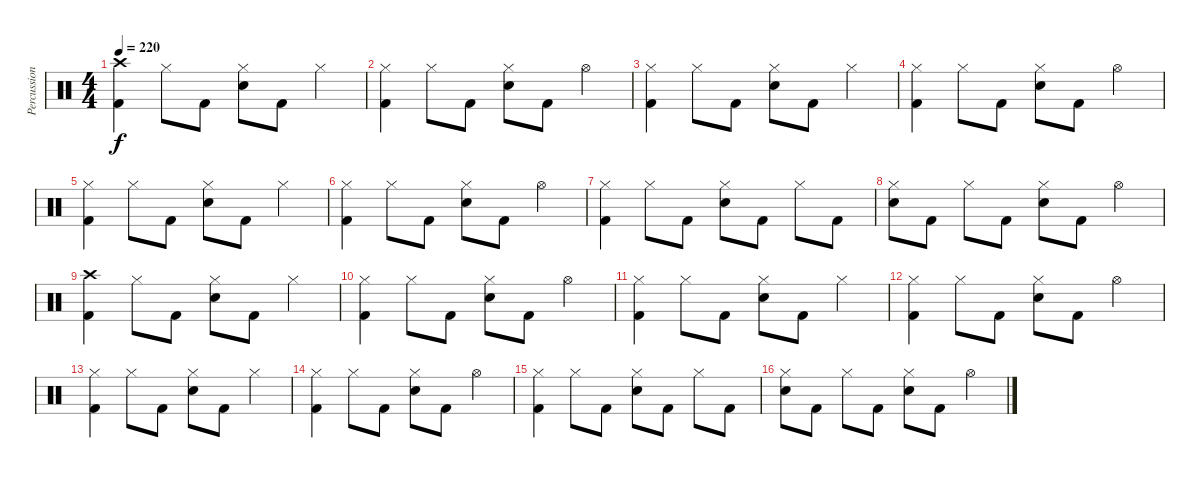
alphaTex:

\track ("Percussion" "Percussion") {instrument percussion}
\staff {score}
\articulation defaults
\ts (4 4)
\tempo 220
\clef neutral
\ks c
("Crash high (hit)" "Kick (hit) 2").4{dy f} "Hi-Hat (closed)".8 "Kick (hit) 2".8 ("Hi-Hat (closed)" "Snare (hit) 2").8 "Kick (hit) 2".8 "Hi-Hat (closed)".4 |
("Hi-Hat (closed)" "Kick (hit) 2").4 "Hi-Hat (closed)".8 "Kick (hit) 2".8 ("Hi-Hat (closed)" "Snare (hit) 2").8 "Kick (hit) 2".8 "Hi-Hat (open)".4 |
("Hi-Hat (closed)" "Kick (hit) 2").4 "Hi-Hat (closed)".8 "Kick (hit) 2".8 ("Hi-Hat (closed)" "Snare (hit) 2").8 "Kick (hit) 2".8 "Hi-Hat (closed)".4 |
("Hi-Hat (closed)" "Kick (hit) 2").4 "Hi-Hat (closed)".8 "Kick (hit) 2".8 ("Hi-Hat (closed)" "Snare (hit) 2").8 "Kick (hit) 2".8 "Hi-Hat (open)".4 |
("Hi-Hat (closed)" "Kick (hit) 2").4 "Hi-Hat (closed)".8 "Kick (hit) 2".8 ("Hi-Hat (closed)" "Snare (hit) 2").8 "Kick (hit) 2".8 "Hi-Hat (closed)".4 |
("Hi-Hat (closed)" "Kick (hit) 2").4 "Hi-Hat (closed)".8 "Kick (hit) 2".8 ("Hi-Hat (closed)" "Snare (hit) 2").8 "Kick (hit) 2".8 "Hi-Hat (open)".4 |
("Hi-Hat (closed)" "Kick (hit) 2").4 "Hi-Hat (closed)".8 "Kick (hit) 2".8 ("Hi-Hat (closed)" "Snare (hit) 2").8 "Kick (hit) 2".8 "Hi-Hat (closed)".8 "Kick (hit) 2".8 |
("Hi-Hat (closed)" "Snare (hit) 2").8 "Kick (hit) 2".8 "Hi-Hat (closed)".8 "Kick (hit) 2".8 ("Hi-Hat (closed)" "Snare (hit) 2").8 "Kick (hit) 2".8 "Hi-Hat (open)".4 |
("Crash high (hit)" "Kick (hit) 2").4 "Hi-Hat (closed)".8 "Kick (hit) 2".8 ("Hi-Hat (closed)" "Snare (hit) 2").8 "Kick (hit) 2".8 "Hi-Hat (closed)".4 |
("Hi-Hat (closed)" "Kick (hit) 2").4 "Hi-Hat (closed)".8 "Kick (hit) 2".8 ("Hi-Hat (closed)" "Snare (hit) 2").8 "Kick (hit) 2".8 "Hi-Hat (open)".4 |
("Hi-Hat (closed)" "Kick (hit) 2").4 "Hi-Hat (closed)".8 "Kick (hit) 2".8 ("Hi-Hat (closed)" "Snare (hit) 2").8 "Kick (hit) 2".8 "Hi-Hat (closed)".4 |
("Hi-Hat (closed)" "Kick (hit) 2").4 "Hi-Hat (closed)".8 "Kick (hit) 2".8 ("Hi-Hat (closed)" "Snare (hit) 2").8 "Kick (hit) 2".8 "Hi-Hat (open)".4 |
("Hi-Hat (closed)" "Kick (hit) 2").4 "Hi-Hat (closed)".8 "Kick (hit) 2".8 ("Hi-Hat (closed)" "Snare (hit) 2").8 "Kick (hit) 2".8 "Hi-Hat (closed)".4 |
("Hi-Hat (closed)" "Kick (hit) 2").4 "Hi-Hat (closed)".8 "Kick (hit) 2".8 ("Hi-Hat (closed)" "Snare (hit) 2").8 "Kick (hit) 2".8 "Hi-Hat (open)".4 |
("Hi-Hat (closed)" "Kick (hit) 2").4 "Hi-Hat (closed)".8 "Kick (hit) 2".8 ("Hi-Hat (closed)" "Snare (hit) 2").8 "Kick (hit) 2".8 "Hi-Hat (closed)".8 "Kick (hit) 2".8 |
("Hi-Hat (closed)" "Snare (hit) 2").8 "Kick (hit) 2".8 "Hi-Hat (closed)".8 "Kick (hit) 2".8 ("Hi-Hat (closed)" "Snare (hit) 2").8 "Kick (hit) 2".8 "Hi-Hat (open)".4
